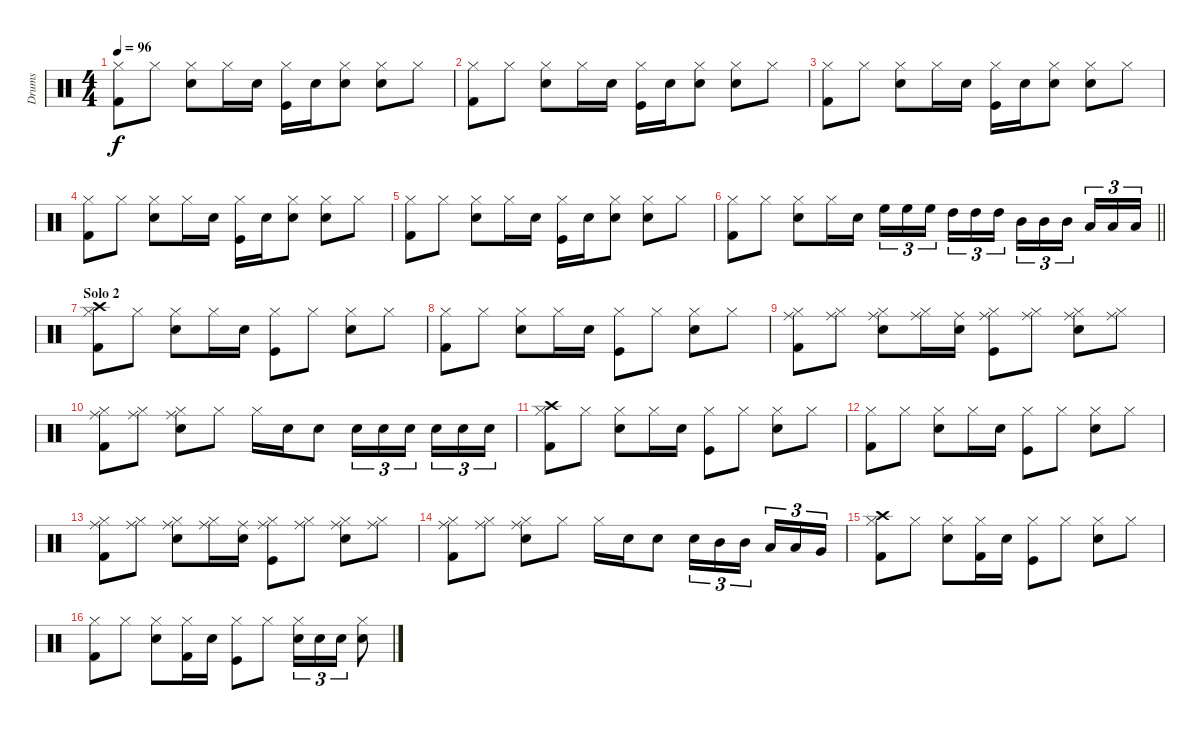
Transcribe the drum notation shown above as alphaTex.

\track ("Drums" "Drums") {instrument percussion}
\staff {score}
\articulation defaults
\ts (4 4)
\tempo 96
\clef neutral
\ks c
("Kick (hit) 2" "Hi-Hat (closed)").8{dy f} "Hi-Hat (closed)".8 ("Snare (hit) 2" "Hi-Hat (closed)").8 "Hi-Hat (closed)".16 "Snare (hit) 2".16 ("Kick (hit)" "Hi-Hat (closed)").16 "Snare (hit) 2".16 ("Snare (hit) 2" "Hi-Hat (closed)").8 ("Snare (hit) 2" "Hi-Hat (closed)").8 "Hi-Hat (closed)".8 |
("Kick (hit) 2" "Hi-Hat (closed)").8 "Hi-Hat (closed)".8 ("Snare (hit) 2" "Hi-Hat (closed)").8 "Hi-Hat (closed)".16 "Snare (hit) 2".16 ("Kick (hit)" "Hi-Hat (closed)").16 "Snare (hit) 2".16 ("Snare (hit) 2" "Hi-Hat (closed)").8 ("Snare (hit) 2" "Hi-Hat (closed)").8 "Hi-Hat (closed)".8 |
("Kick (hit) 2" "Hi-Hat (closed)").8 "Hi-Hat (closed)".8 ("Snare (hit) 2" "Hi-Hat (closed)").8 "Hi-Hat (closed)".16 "Snare (hit) 2".16 ("Kick (hit)" "Hi-Hat (closed)").16 "Snare (hit) 2".16 ("Snare (hit) 2" "Hi-Hat (closed)").8 ("Snare (hit) 2" "Hi-Hat (closed)").8 "Hi-Hat (closed)".8 |
("Kick (hit) 2" "Hi-Hat (closed)").8 "Hi-Hat (closed)".8 ("Snare (hit) 2" "Hi-Hat (closed)").8 "Hi-Hat (closed)".16 "Snare (hit) 2".16 ("Kick (hit)" "Hi-Hat (closed)").16 "Snare (hit) 2".16 ("Snare (hit) 2" "Hi-Hat (closed)").8 ("Snare (hit) 2" "Hi-Hat (closed)").8 "Hi-Hat (closed)".8 |
("Kick (hit) 2" "Hi-Hat (closed)").8 "Hi-Hat (closed)".8 ("Snare (hit) 2" "Hi-Hat (closed)").8 "Hi-Hat (closed)".16 "Snare (hit) 2".16 ("Kick (hit)" "Hi-Hat (closed)").16 "Snare (hit) 2".16 ("Snare (hit) 2" "Hi-Hat (closed)").8 ("Snare (hit) 2" "Hi-Hat (closed)").8 "Hi-Hat (closed)".8 |
\barLineRight lightlight
("Kick (hit) 2" "Hi-Hat (closed)").8 "Hi-Hat (closed)".8 ("Snare (hit) 2" "Hi-Hat (closed)").8 "Hi-Hat (closed)".16 "Snare (hit) 2".16 "High Floor Tom (hit)".16{tu (3 2)} "High Floor Tom (hit)".16{tu (3 2)} "High Floor Tom (hit)".16{tu (3 2) beam splitsecondary} "High Tom (hit)".16{tu (3 2)} "High Tom (hit)".16{tu (3 2)} "High Tom (hit)".16{tu (3 2)} "Mid Tom (hit)".16{tu (3 2)} "Mid Tom (hit)".16{tu (3 2)} "Mid Tom (hit)".16{tu (3 2) beam splitsecondary} "Low Tom (hit)".16{tu (3 2)} "Low Tom (hit)".16{tu (3 2)} "Low Tom (hit)".16{tu (3 2)} |
\section ("" "Solo 2")
("Kick (hit) 2" "Hi-Hat (closed)" "Crash high (hit)").8 "Hi-Hat (closed)".8 ("Snare (hit) 2" "Hi-Hat (closed)").8 "Hi-Hat (closed)".16 "Snare (hit) 2".16 ("Kick (hit)" "Hi-Hat (closed)").8 "Hi-Hat (closed)".8 ("Snare (hit) 2" "Hi-Hat (closed)").8 "Hi-Hat (closed)".8 |
("Kick (hit) 2" "Hi-Hat (closed)").8 "Hi-Hat (closed)".8 ("Snare (hit) 2" "Hi-Hat (closed)").8 "Hi-Hat (closed)".16 "Snare (hit) 2".16 ("Kick (hit)" "Hi-Hat (closed)").8 "Hi-Hat (closed)".8 ("Snare (hit) 2" "Hi-Hat (closed)").8 "Hi-Hat (closed)".8 |
("Kick (hit) 2" "Hi-Hat (closed)" "Ride (middle)").8 ("Hi-Hat (closed)" "Ride (middle)").8 ("Snare (hit) 2" "Hi-Hat (closed)" "Ride (middle)").8 ("Hi-Hat (closed)" "Ride (middle)").16 ("Snare (hit) 2" "Ride (middle)").16 ("Kick (hit)" "Hi-Hat (closed)" "Ride (middle)").8 ("Hi-Hat (closed)" "Ride (middle)").8 ("Snare (hit) 2" "Hi-Hat (closed)" "Ride (middle)").8 ("Hi-Hat (closed)" "Ride (middle)").8 |
("Kick (hit) 2" "Hi-Hat (closed)" "Ride (middle)").8 ("Hi-Hat (closed)" "Ride (middle)").8 ("Snare (hit) 2" "Hi-Hat (closed)" "Ride (middle)").8 "Hi-Hat (closed)".8 "Hi-Hat (closed)".16 "Snare (hit) 2".16 "Snare (hit) 2".8 "Snare (hit) 2".16{tu (3 2)} "Snare (hit) 2".16{tu (3 2)} "Snare (hit) 2".16{tu (3 2) beam splitsecondary} "Snare (hit) 2".16{tu (3 2)} "Snare (hit) 2".16{tu (3 2)} "Snare (hit) 2".16{tu (3 2)} |
("Kick (hit) 2" "Hi-Hat (closed)" "Crash high (hit)").8 "Hi-Hat (closed)".8 ("Snare (hit) 2" "Hi-Hat (closed)").8 "Hi-Hat (closed)".16 "Snare (hit) 2".16 ("Kick (hit)" "Hi-Hat (closed)").8 "Hi-Hat (closed)".8 ("Snare (hit) 2" "Hi-Hat (closed)").8 "Hi-Hat (closed)".8 |
("Kick (hit) 2" "Hi-Hat (closed)").8 "Hi-Hat (closed)".8 ("Snare (hit) 2" "Hi-Hat (closed)").8 "Hi-Hat (closed)".16 "Snare (hit) 2".16 ("Kick (hit)" "Hi-Hat (closed)").8 "Hi-Hat (closed)".8 ("Snare (hit) 2" "Hi-Hat (closed)").8 "Hi-Hat (closed)".8 |
("Kick (hit) 2" "Hi-Hat (closed)" "Ride (middle)").8 ("Hi-Hat (closed)" "Ride (middle)").8 ("Snare (hit) 2" "Hi-Hat (closed)" "Ride (middle)").8 ("Hi-Hat (closed)" "Ride (middle)").16 ("Snare (hit) 2" "Ride (middle)").16 ("Kick (hit)" "Hi-Hat (closed)" "Ride (middle)").8 ("Hi-Hat (closed)" "Ride (middle)").8 ("Snare (hit) 2" "Hi-Hat (closed)" "Ride (middle)").8 ("Hi-Hat (closed)" "Ride (middle)").8 |
("Kick (hit) 2" "Hi-Hat (closed)" "Ride (middle)").8 ("Hi-Hat (closed)" "Ride (middle)").8 ("Snare (hit) 2" "Hi-Hat (closed)" "Ride (middle)").8 "Hi-Hat (closed)".8 "Hi-Hat (closed)".16 "Snare (hit) 2".16 "Snare (hit) 2".8 "Snare (hit) 2".16{tu (3 2)} "Mid Tom (hit)".16{tu (3 2)} "Mid Tom (hit)".16{tu (3 2) beam splitsecondary} "Low Tom (hit)".16{tu (3 2)} "Low Tom (hit)".16{tu (3 2)} "Very Low Tom (hit)".16{tu (3 2)} |
("Kick (hit) 2" "Hi-Hat (closed)" "Crash high (hit)").8 "Hi-Hat (closed)".8 ("Snare (hit) 2" "Hi-Hat (closed)").8 ("Kick (hit) 2" "Hi-Hat (closed)").16 "Snare (hit) 2".16 ("Kick (hit)" "Hi-Hat (closed)").8 "Hi-Hat (closed)".8 ("Snare (hit) 2" "Hi-Hat (closed)").8 "Hi-Hat (closed)".8 |
("Kick (hit) 2" "Hi-Hat (closed)").8 "Hi-Hat (closed)".8 ("Snare (hit) 2" "Hi-Hat (closed)").8 ("Kick (hit) 2" "Hi-Hat (closed)").16 "Snare (hit) 2".16 ("Kick (hit)" "Hi-Hat (closed)").8 "Hi-Hat (closed)".8 ("Snare (hit) 2" "Hi-Hat (closed)").16{tu (3 2)} "Snare (hit) 2".16{tu (3 2)} "Snare (hit) 2".16{tu (3 2)} ("Snare (hit) 2" "Hi-Hat (closed)").8
